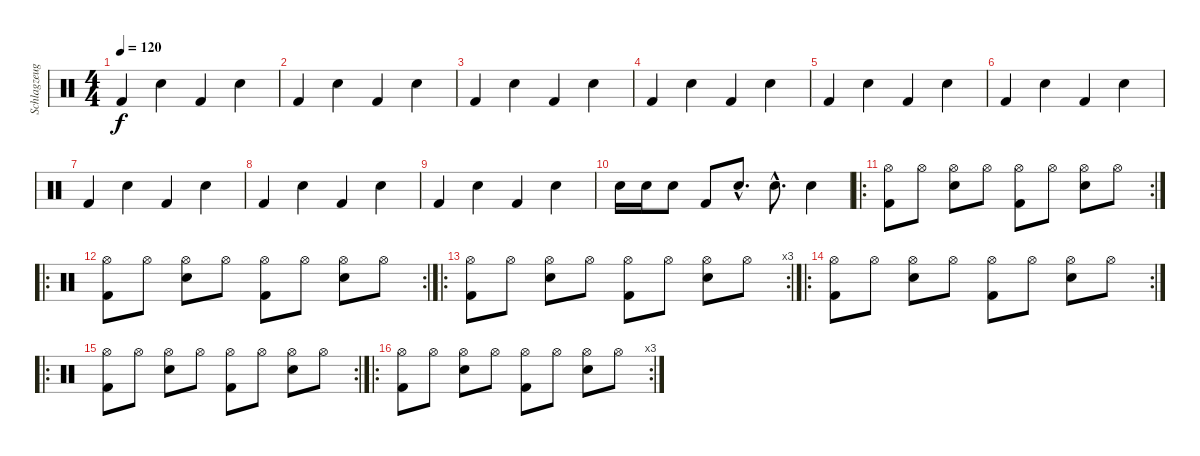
\track ("Schlagzeug" "Schlagzeug") {instrument percussion}
\staff {score}
\articulation defaults
\ts (4 4)
\tempo 120
\clef neutral
\ks c "Kick (hit) 2".4{dy f} "Snare (hit) 2".4 "Kick (hit) 2".4 "Snare (hit) 2".4
|
"Kick (hit) 2".4 "Snare (hit) 2".4 "Kick (hit) 2".4 "Snare (hit) 2".4 |
"Kick (hit) 2".4 "Snare (hit) 2".4 "Kick (hit) 2".4 "Snare (hit) 2".4 |
"Kick (hit) 2".4 "Snare (hit) 2".4 "Kick (hit) 2".4 "Snare (hit) 2".4 |
"Kick (hit) 2".4 "Snare (hit) 2".4 "Kick (hit) 2".4 "Snare (hit) 2".4 |
"Kick (hit) 2".4 "Snare (hit) 2".4 "Kick (hit) 2".4 "Snare (hit) 2".4 |
"Kick (hit) 2".4 "Snare (hit) 2".4 "Kick (hit) 2".4 "Snare (hit) 2".4 |
"Kick (hit) 2".4 "Snare (hit) 2".4 "Kick (hit) 2".4 "Snare (hit) 2".4 |
"Kick (hit) 2".4 "Snare (hit) 2".4 "Kick (hit) 2".4 "Snare (hit) 2".4 |
"Snare (hit) 2".16 "Snare (hit) 2".16 "Snare (hit) 2".8 "Kick (hit) 2".8 "Snare (hit) 2"{hac}.8{d} "Snare (hit) 2"{hac}.8{d} "Snare (hit) 2".4 |
\ro
\rc 2
("Hi-Hat (open)" "Kick (hit) 2").8 "Hi-Hat (open)".8 ("Hi-Hat (open)" "Snare (hit) 2").8 "Hi-Hat (open)".8 ("Hi-Hat (open)" "Kick (hit) 2").8 "Hi-Hat (open)".8 ("Hi-Hat (open)" "Snare (hit) 2").8 "Hi-Hat (open)".8 |
\ro
\rc 2
("Hi-Hat (open)" "Kick (hit) 2").8 "Hi-Hat (open)".8 ("Hi-Hat (open)" "Snare (hit) 2").8 "Hi-Hat (open)".8 ("Hi-Hat (open)" "Kick (hit) 2").8 "Hi-Hat (open)".8 ("Hi-Hat (open)" "Snare (hit) 2").8 "Hi-Hat (open)".8 |
\ro
\rc 3
("Hi-Hat (open)" "Kick (hit) 2").8 "Hi-Hat (open)".8 ("Hi-Hat (open)" "Snare (hit) 2").8 "Hi-Hat (open)".8 ("Hi-Hat (open)" "Kick (hit) 2").8 "Hi-Hat (open)".8 ("Hi-Hat (open)" "Snare (hit) 2").8 "Hi-Hat (open)".8 |
\ro
\rc 2
("Hi-Hat (open)" "Kick (hit) 2").8 "Hi-Hat (open)".8 ("Hi-Hat (open)" "Snare (hit) 2").8 "Hi-Hat (open)".8 ("Hi-Hat (open)" "Kick (hit) 2").8 "Hi-Hat (open)".8 ("Hi-Hat (open)" "Snare (hit) 2").8 "Hi-Hat (open)".8 |
\ro
\rc 2
("Hi-Hat (open)" "Kick (hit) 2").8 "Hi-Hat (open)".8 ("Hi-Hat (open)" "Snare (hit) 2").8 "Hi-Hat (open)".8 ("Hi-Hat (open)" "Kick (hit) 2").8 "Hi-Hat (open)".8 ("Hi-Hat (open)" "Snare (hit) 2").8 "Hi-Hat (open)".8 |
\ro
\rc 3
("Hi-Hat (open)" "Kick (hit) 2").8 "Hi-Hat (open)".8 ("Hi-Hat (open)" "Snare (hit) 2").8 "Hi-Hat (open)".8 ("Hi-Hat (open)" "Kick (hit) 2").8 "Hi-Hat (open)".8 ("Hi-Hat (open)" "Snare (hit) 2").8 "Hi-Hat (open)".8
